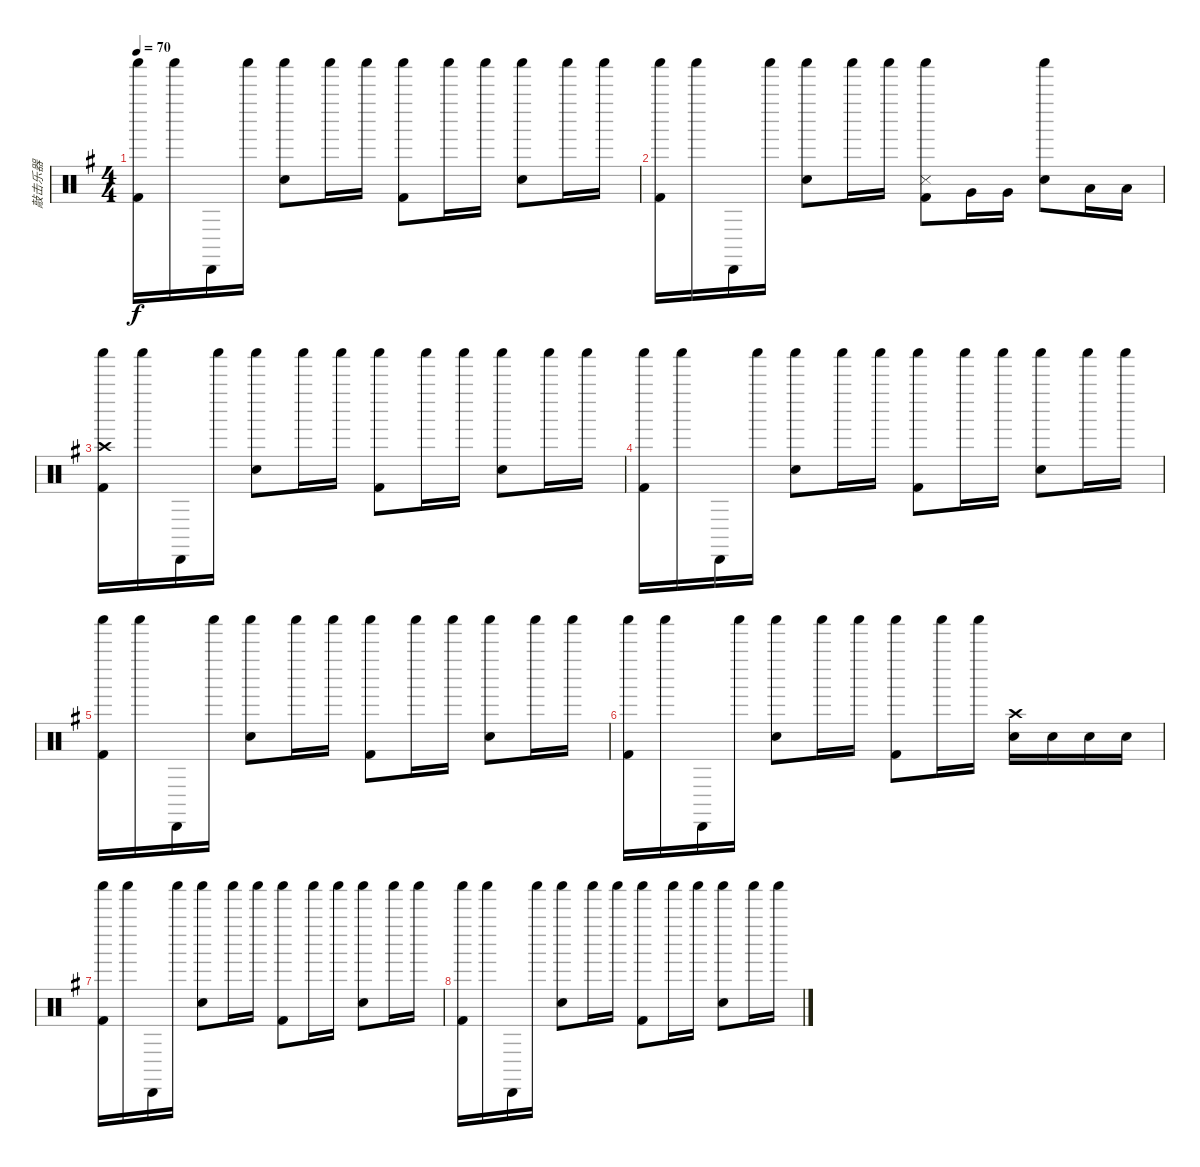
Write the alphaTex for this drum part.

\track ("敲击乐器" "敲击乐器") {instrument percussion}
\staff {score}
\articulation defaults
\ts (4 4)
\tempo 70
\clef neutral
\ks g
("Shaker (hit)" "Kick (hit) 2").16{dy f} "Shaker (hit)".16 "Cabasa (hit)".16 "Shaker (hit)".16 ("Shaker (hit)" "Snare (hit) 2").8 "Shaker (hit)".16 "Shaker (hit)".16 ("Shaker (hit)" "Kick (hit) 2").8 "Shaker (hit)".16 "Shaker (hit)".16 ("Shaker (hit)" "Snare (hit) 2").8 "Shaker (hit)".16 "Shaker (hit)".16 |
("Shaker (hit)" "Kick (hit) 2").16 "Shaker (hit)".16 "Cabasa (hit)".16 "Shaker (hit)".16 ("Shaker (hit)" "Snare (hit) 2").8 "Shaker (hit)".16 "Shaker (hit)".16 ("Shaker (hit)" "Snare (side stick) 3" "Kick (hit) 2").8 "Very Low Tom (hit)".16 "Very Low Tom (hit)".16 ("Shaker (hit)" "Snare (hit) 2").8 "Low Tom (hit)".16 "Low Tom (hit)".16 |
("Crash high (hit)" "Shaker (hit)" "Kick (hit) 2").16 "Shaker (hit)".16 "Cabasa (hit)".16 "Shaker (hit)".16 ("Shaker (hit)" "Snare (hit) 2").8 "Shaker (hit)".16 "Shaker (hit)".16 ("Shaker (hit)" "Kick (hit) 2").8 "Shaker (hit)".16 "Shaker (hit)".16 ("Shaker (hit)" "Snare (hit) 2").8 "Shaker (hit)".16 "Shaker (hit)".16 |
("Shaker (hit)" "Kick (hit) 2").16 "Shaker (hit)".16 "Cabasa (hit)".16 "Shaker (hit)".16 ("Shaker (hit)" "Snare (hit) 2").8 "Shaker (hit)".16 "Shaker (hit)".16 ("Shaker (hit)" "Kick (hit) 2").8 "Shaker (hit)".16 "Shaker (hit)".16 ("Shaker (hit)" "Snare (hit) 2").8 "Shaker (hit)".16 "Shaker (hit)".16 |
("Shaker (hit)" "Kick (hit) 2").16 "Shaker (hit)".16 "Cabasa (hit)".16 "Shaker (hit)".16 ("Shaker (hit)" "Snare (hit) 2").8 "Shaker (hit)".16 "Shaker (hit)".16 ("Shaker (hit)" "Kick (hit) 2").8 "Shaker (hit)".16 "Shaker (hit)".16 ("Shaker (hit)" "Snare (hit) 2").8 "Shaker (hit)".16 "Shaker (hit)".16 |
("Shaker (hit)" "Kick (hit) 2").16 "Shaker (hit)".16 "Cabasa (hit)".16 "Shaker (hit)".16 ("Shaker (hit)" "Snare (hit) 2").8 "Shaker (hit)".16 "Shaker (hit)".16 ("Shaker (hit)" "Kick (hit) 2").8 "Shaker (hit)".16 "Shaker (hit)".16 ("Crash high (hit)" "Snare (hit) 2").16 "Snare (hit) 2".16 "Snare (hit) 2".16 "Snare (hit) 2".16 |
("Shaker (hit)" "Kick (hit) 2").16 "Shaker (hit)".16 "Cabasa (hit)".16 "Shaker (hit)".16 ("Shaker (hit)" "Snare (hit) 2").8 "Shaker (hit)".16 "Shaker (hit)".16 ("Shaker (hit)" "Kick (hit) 2").8 "Shaker (hit)".16 "Shaker (hit)".16 ("Shaker (hit)" "Snare (hit) 2").8 "Shaker (hit)".16 "Shaker (hit)".16 |
("Shaker (hit)" "Kick (hit) 2").16 "Shaker (hit)".16 "Cabasa (hit)".16 "Shaker (hit)".16 ("Shaker (hit)" "Snare (hit) 2").8 "Shaker (hit)".16 "Shaker (hit)".16 ("Shaker (hit)" "Kick (hit) 2").8 "Shaker (hit)".16 "Shaker (hit)".16 ("Shaker (hit)" "Snare (hit) 2").8 "Shaker (hit)".16 "Shaker (hit)".16
